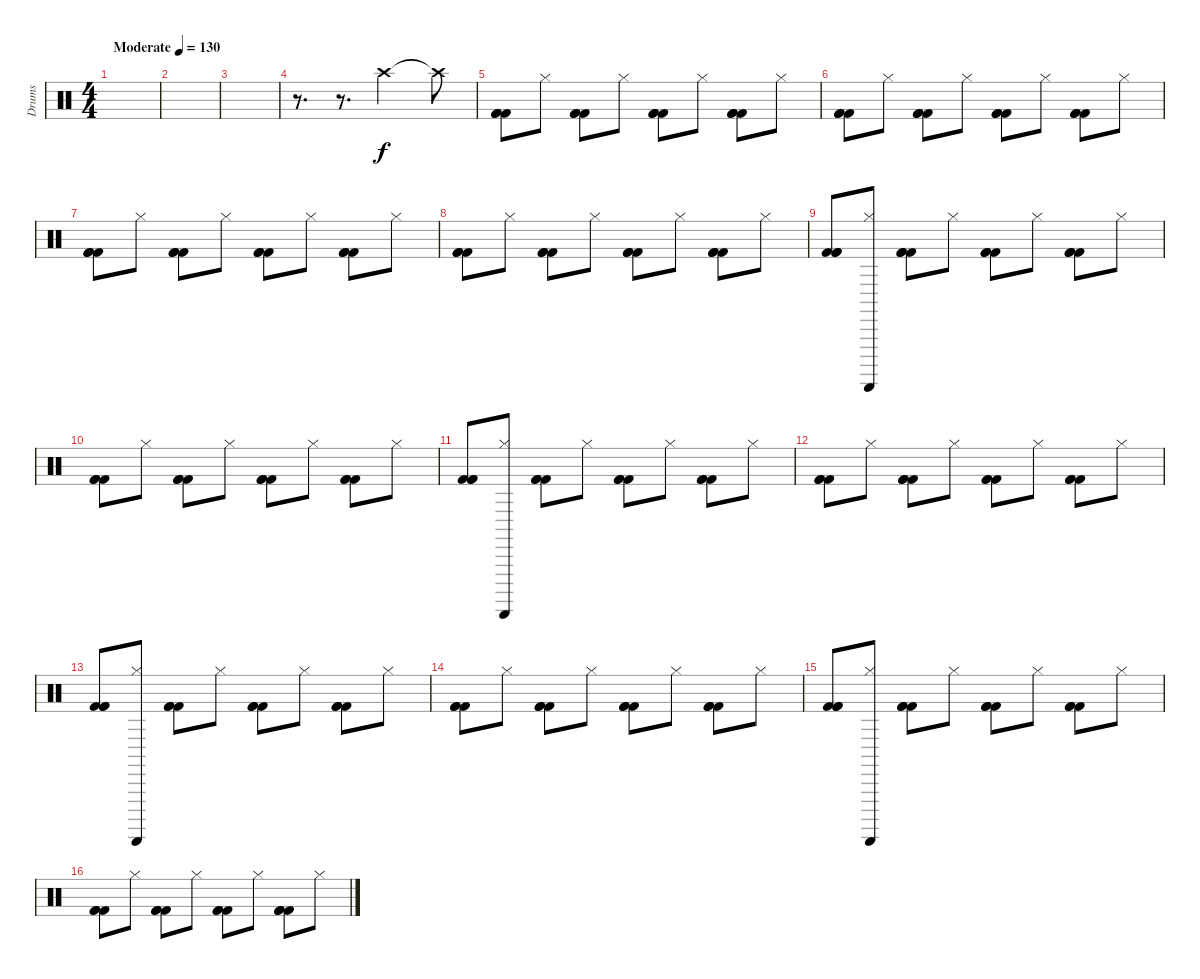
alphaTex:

\track ("Drums" "Drums") {instrument percussion}
\staff {score}
\articulation defaults
\ts (4 4)
\tempo (130 "Moderate")
\clef neutral
\ks c
|
|
|
r.8{d} r.8{d} "Crash high (hit)".2 "Crash high (hit)"{t}.8 |
("Kick (hit) 2" "Kick (hit) 2" "Kick (hit) 2").8 "Hi-Hat (closed)".8 ("Kick (hit) 2" "Kick (hit) 2" "Kick (hit) 2").8 "Hi-Hat (closed)".8 ("Kick (hit) 2" "Kick (hit) 2" "Kick (hit) 2").8 "Hi-Hat (closed)".8 ("Kick (hit) 2" "Kick (hit) 2" "Kick (hit) 2").8 "Hi-Hat (closed)".8 |
("Kick (hit) 2" "Kick (hit) 2" "Kick (hit) 2").8 "Hi-Hat (closed)".8 ("Kick (hit) 2" "Kick (hit) 2" "Kick (hit) 2").8 "Hi-Hat (closed)".8 ("Kick (hit) 2" "Kick (hit) 2" "Kick (hit) 2").8 "Hi-Hat (closed)".8 ("Kick (hit) 2" "Kick (hit) 2" "Kick (hit) 2").8 "Hi-Hat (closed)".8 |
("Kick (hit) 2" "Kick (hit) 2" "Kick (hit) 2").8 "Hi-Hat (closed)".8 ("Kick (hit) 2" "Kick (hit) 2" "Kick (hit) 2").8 "Hi-Hat (closed)".8 ("Kick (hit) 2" "Kick (hit) 2" "Kick (hit) 2").8 "Hi-Hat (closed)".8 ("Kick (hit) 2" "Kick (hit) 2" "Kick (hit) 2").8 "Hi-Hat (closed)".8 |
("Kick (hit) 2" "Kick (hit) 2" "Kick (hit) 2").8 "Hi-Hat (closed)".8 ("Kick (hit) 2" "Kick (hit) 2" "Kick (hit) 2").8 "Hi-Hat (closed)".8 ("Kick (hit) 2" "Kick (hit) 2" "Kick (hit) 2").8 "Hi-Hat (closed)".8 ("Kick (hit) 2" "Kick (hit) 2" "Kick (hit) 2").8 "Hi-Hat (closed)".8 |
("Kick (hit) 2" "Kick (hit) 2" "Kick (hit) 2").8 ("Guiro (scrap-return)" "Hi-Hat (closed)").8 ("Kick (hit) 2" "Kick (hit) 2" "Kick (hit) 2").8 "Hi-Hat (closed)".8 ("Kick (hit) 2" "Kick (hit) 2" "Kick (hit) 2").8 "Hi-Hat (closed)".8 ("Kick (hit) 2" "Kick (hit) 2" "Kick (hit) 2").8 "Hi-Hat (closed)".8 |
("Kick (hit) 2" "Kick (hit) 2" "Kick (hit) 2").8 "Hi-Hat (closed)".8 ("Kick (hit) 2" "Kick (hit) 2" "Kick (hit) 2").8 "Hi-Hat (closed)".8 ("Kick (hit) 2" "Kick (hit) 2" "Kick (hit) 2").8 "Hi-Hat (closed)".8 ("Kick (hit) 2" "Kick (hit) 2" "Kick (hit) 2").8 "Hi-Hat (closed)".8 |
("Kick (hit) 2" "Kick (hit) 2" "Kick (hit) 2").8 ("Guiro (scrap-return)" "Hi-Hat (closed)").8 ("Kick (hit) 2" "Kick (hit) 2" "Kick (hit) 2").8 "Hi-Hat (closed)".8 ("Kick (hit) 2" "Kick (hit) 2" "Kick (hit) 2").8 "Hi-Hat (closed)".8 ("Kick (hit) 2" "Kick (hit) 2" "Kick (hit) 2").8 "Hi-Hat (closed)".8 |
("Kick (hit) 2" "Kick (hit) 2" "Kick (hit) 2").8 "Hi-Hat (closed)".8 ("Kick (hit) 2" "Kick (hit) 2" "Kick (hit) 2").8 "Hi-Hat (closed)".8 ("Kick (hit) 2" "Kick (hit) 2" "Kick (hit) 2").8 "Hi-Hat (closed)".8 ("Kick (hit) 2" "Kick (hit) 2" "Kick (hit) 2").8 "Hi-Hat (closed)".8 |
("Kick (hit) 2" "Kick (hit) 2" "Kick (hit) 2").8 ("Guiro (scrap-return)" "Hi-Hat (closed)").8 ("Kick (hit) 2" "Kick (hit) 2" "Kick (hit) 2").8 "Hi-Hat (closed)".8 ("Kick (hit) 2" "Kick (hit) 2" "Kick (hit) 2").8 "Hi-Hat (closed)".8 ("Kick (hit) 2" "Kick (hit) 2" "Kick (hit) 2").8 "Hi-Hat (closed)".8 |
("Kick (hit) 2" "Kick (hit) 2" "Kick (hit) 2").8 "Hi-Hat (closed)".8 ("Kick (hit) 2" "Kick (hit) 2" "Kick (hit) 2").8 "Hi-Hat (closed)".8 ("Kick (hit) 2" "Kick (hit) 2" "Kick (hit) 2").8 "Hi-Hat (closed)".8 ("Kick (hit) 2" "Kick (hit) 2" "Kick (hit) 2").8 "Hi-Hat (closed)".8 |
("Kick (hit) 2" "Kick (hit) 2" "Kick (hit) 2").8 ("Guiro (scrap-return)" "Hi-Hat (closed)").8 ("Kick (hit) 2" "Kick (hit) 2" "Kick (hit) 2").8 "Hi-Hat (closed)".8 ("Kick (hit) 2" "Kick (hit) 2" "Kick (hit) 2").8 "Hi-Hat (closed)".8 ("Kick (hit) 2" "Kick (hit) 2" "Kick (hit) 2").8 "Hi-Hat (closed)".8 |
("Kick (hit) 2" "Kick (hit) 2" "Kick (hit) 2").8 "Hi-Hat (closed)".8 ("Kick (hit) 2" "Kick (hit) 2" "Kick (hit) 2").8 "Hi-Hat (closed)".8 ("Kick (hit) 2" "Kick (hit) 2" "Kick (hit) 2").8 "Hi-Hat (closed)".8 ("Kick (hit) 2" "Kick (hit) 2" "Kick (hit) 2").8 "Hi-Hat (closed)".8
